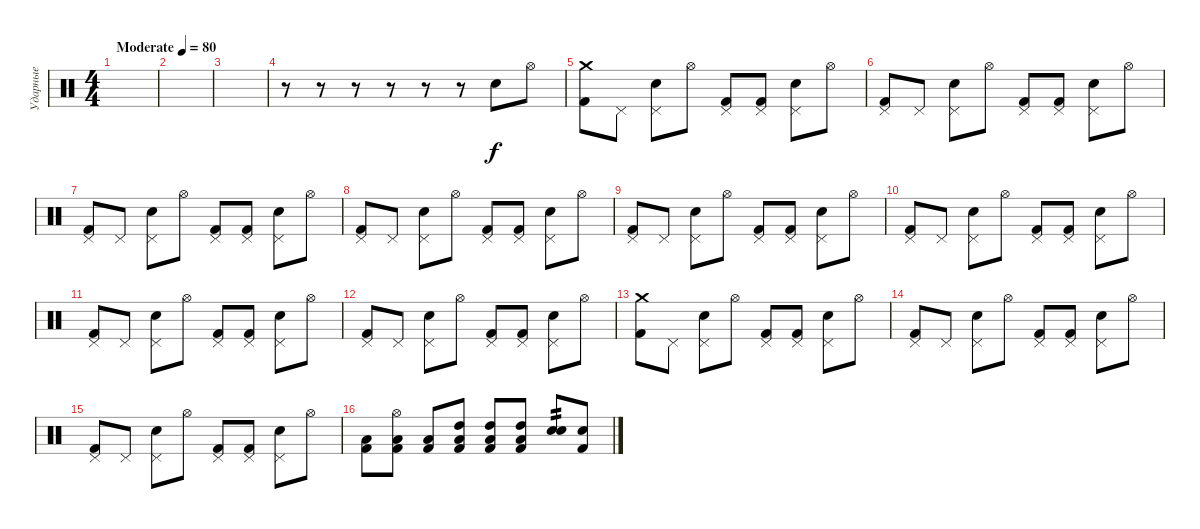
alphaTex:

\track ("Ударные" "Ударные") {instrument percussion}
\staff {score}
\articulation defaults
\ts (4 4)
\tempo (80 "Moderate")
\clef neutral
\ks c
|
|
|
r.8 r.8 r.8 r.8 r.8 r.8 "Electric Snare (hit)".8 "Hi-Hat (open)".8 |
("Crash medium (hit)" "Kick (hit) 2").8 "Pedal Hi-Hat (hit)".8 ("Pedal Hi-Hat (hit)" "Electric Snare (hit)").8 "Hi-Hat (open)".8 ("Pedal Hi-Hat (hit)" "Kick (hit) 2").8 ("Pedal Hi-Hat (hit)" "Kick (hit) 2").8 ("Pedal Hi-Hat (hit)" "Electric Snare (hit)").8 "Hi-Hat (open)".8 |
("Pedal Hi-Hat (hit)" "Kick (hit) 2").8 "Pedal Hi-Hat (hit)".8 ("Pedal Hi-Hat (hit)" "Electric Snare (hit)").8 "Hi-Hat (open)".8 ("Pedal Hi-Hat (hit)" "Kick (hit) 2").8 ("Pedal Hi-Hat (hit)" "Kick (hit) 2").8 ("Pedal Hi-Hat (hit)" "Electric Snare (hit)").8 "Hi-Hat (open)".8 |
("Pedal Hi-Hat (hit)" "Kick (hit) 2").8 "Pedal Hi-Hat (hit)".8 ("Pedal Hi-Hat (hit)" "Electric Snare (hit)").8 "Hi-Hat (open)".8 ("Pedal Hi-Hat (hit)" "Kick (hit) 2").8 ("Pedal Hi-Hat (hit)" "Kick (hit) 2").8 ("Pedal Hi-Hat (hit)" "Electric Snare (hit)").8 "Hi-Hat (open)".8 |
("Pedal Hi-Hat (hit)" "Kick (hit) 2").8 "Pedal Hi-Hat (hit)".8 ("Pedal Hi-Hat (hit)" "Electric Snare (hit)").8 "Hi-Hat (open)".8 ("Pedal Hi-Hat (hit)" "Kick (hit) 2").8 ("Pedal Hi-Hat (hit)" "Kick (hit) 2").8 ("Pedal Hi-Hat (hit)" "Electric Snare (hit)").8 "Hi-Hat (open)".8 |
("Pedal Hi-Hat (hit)" "Kick (hit) 2").8 "Pedal Hi-Hat (hit)".8 ("Pedal Hi-Hat (hit)" "Electric Snare (hit)").8 "Hi-Hat (open)".8 ("Pedal Hi-Hat (hit)" "Kick (hit) 2").8 ("Pedal Hi-Hat (hit)" "Kick (hit) 2").8 ("Pedal Hi-Hat (hit)" "Electric Snare (hit)").8 "Hi-Hat (open)".8 |
("Pedal Hi-Hat (hit)" "Kick (hit) 2").8 "Pedal Hi-Hat (hit)".8 ("Pedal Hi-Hat (hit)" "Electric Snare (hit)").8 "Hi-Hat (open)".8 ("Pedal Hi-Hat (hit)" "Kick (hit) 2").8 ("Pedal Hi-Hat (hit)" "Kick (hit) 2").8 ("Pedal Hi-Hat (hit)" "Electric Snare (hit)").8 "Hi-Hat (open)".8 |
("Pedal Hi-Hat (hit)" "Kick (hit) 2").8 "Pedal Hi-Hat (hit)".8 ("Pedal Hi-Hat (hit)" "Electric Snare (hit)").8 "Hi-Hat (open)".8 ("Pedal Hi-Hat (hit)" "Kick (hit) 2").8 ("Pedal Hi-Hat (hit)" "Kick (hit) 2").8 ("Pedal Hi-Hat (hit)" "Electric Snare (hit)").8 "Hi-Hat (open)".8 |
("Pedal Hi-Hat (hit)" "Kick (hit) 2").8 "Pedal Hi-Hat (hit)".8 ("Pedal Hi-Hat (hit)" "Electric Snare (hit)").8 "Hi-Hat (open)".8 ("Pedal Hi-Hat (hit)" "Kick (hit) 2").8 ("Pedal Hi-Hat (hit)" "Kick (hit) 2").8 ("Pedal Hi-Hat (hit)" "Electric Snare (hit)").8 "Hi-Hat (open)".8 |
("Crash medium (hit)" "Kick (hit) 2").8 "Pedal Hi-Hat (hit)".8 ("Pedal Hi-Hat (hit)" "Electric Snare (hit)").8 "Hi-Hat (open)".8 ("Pedal Hi-Hat (hit)" "Kick (hit) 2").8 ("Pedal Hi-Hat (hit)" "Kick (hit) 2").8 ("Pedal Hi-Hat (hit)" "Electric Snare (hit)").8 "Hi-Hat (open)".8 |
("Pedal Hi-Hat (hit)" "Kick (hit) 2").8 "Pedal Hi-Hat (hit)".8 ("Pedal Hi-Hat (hit)" "Electric Snare (hit)").8 "Hi-Hat (open)".8 ("Pedal Hi-Hat (hit)" "Kick (hit) 2").8 ("Pedal Hi-Hat (hit)" "Kick (hit) 2").8 ("Pedal Hi-Hat (hit)" "Electric Snare (hit)").8 "Hi-Hat (open)".8 |
("Pedal Hi-Hat (hit)" "Kick (hit) 2").8 "Pedal Hi-Hat (hit)".8 ("Pedal Hi-Hat (hit)" "Electric Snare (hit)").8 "Hi-Hat (open)".8 ("Pedal Hi-Hat (hit)" "Kick (hit) 2").8 ("Pedal Hi-Hat (hit)" "Kick (hit) 2").8 ("Pedal Hi-Hat (hit)" "Electric Snare (hit)").8 "Hi-Hat (open)".8 |
("Low Tom (hit)" "Kick (hit) 2").8 ("Hi-Hat (open)" "Low Tom (hit)" "Kick (hit) 2").8 ("Low Tom (hit)" "Kick (hit) 2").8 ("Low Tom (hit)" "High Tom (hit)" "Kick (hit) 2").8 ("Low Tom (hit)" "High Tom (hit)" "Kick (hit) 2").8 ("Low Tom (hit)" "High Tom (hit)" "Kick (hit) 2").8 ("Electric Snare (hit)" "Electric Snare (hit)").8{tp 2} ("Electric Snare (hit)" "Kick (hit) 2").8
